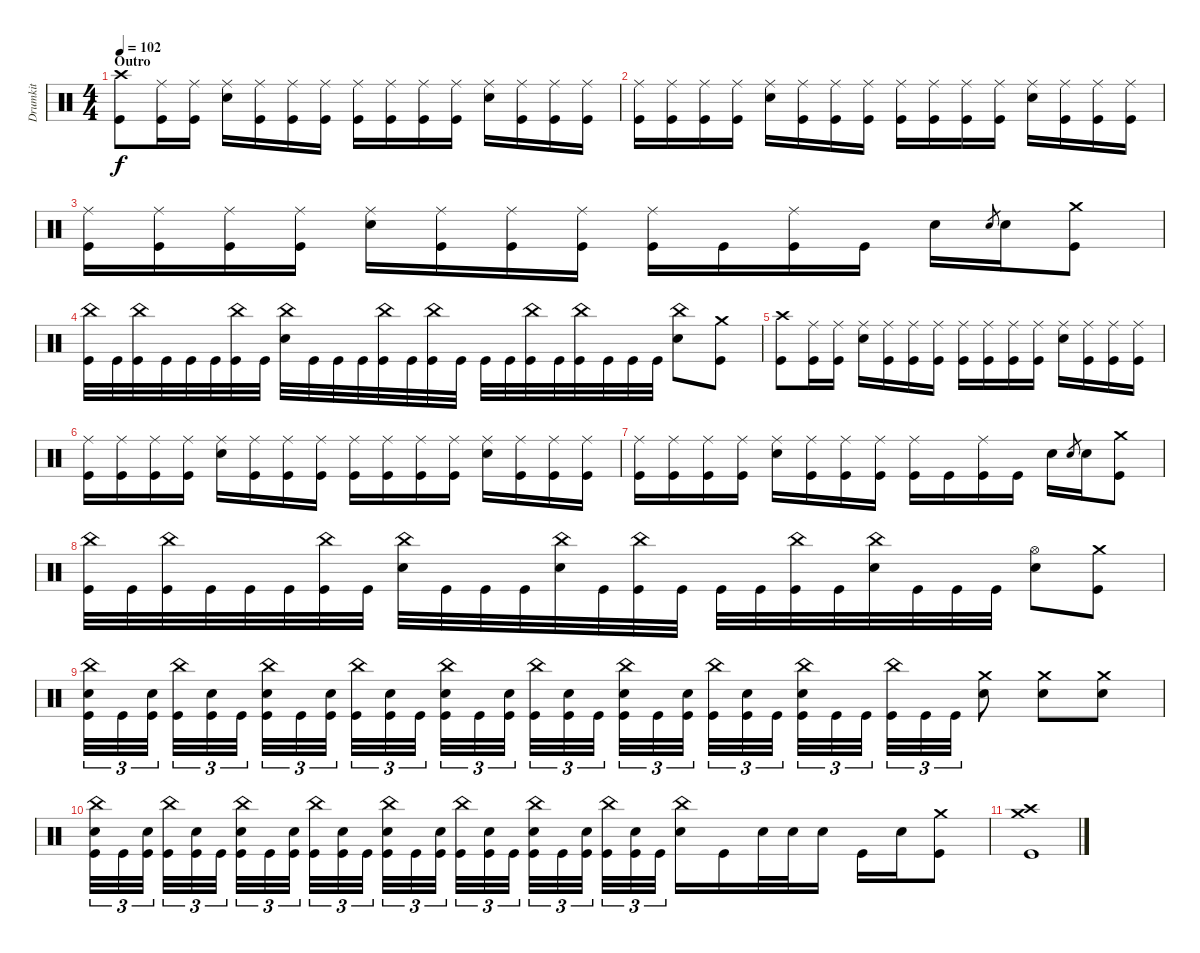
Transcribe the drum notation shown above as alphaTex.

\track ("Drumkit" "Drumkit") {instrument percussion}
\staff {score}
\articulation defaults
\ts (4 4)
\section ("" "Outro")
\tempo 102
\clef neutral
\ks c
("Kick (hit)" "Crash high (hit)").8{dy f} ("Kick (hit)" "Ride (middle)").16 ("Kick (hit)" "Ride (middle)").16 ("Snare (hit) 2" "Ride (middle)").16 ("Kick (hit)" "Ride (middle)").16 ("Kick (hit)" "Ride (middle)").16 ("Kick (hit)" "Ride (middle)").16 ("Kick (hit)" "Ride (middle)").16 ("Kick (hit)" "Ride (middle)").16 ("Kick (hit)" "Ride (middle)").16 ("Kick (hit)" "Ride (middle)").16 ("Snare (hit) 2" "Ride (middle)").16 ("Kick (hit)" "Ride (middle)").16 ("Kick (hit)" "Ride (middle)").16 ("Kick (hit)" "Ride (middle)").16 |
("Kick (hit)" "Ride (middle)").16 ("Kick (hit)" "Ride (middle)").16 ("Kick (hit)" "Ride (middle)").16 ("Kick (hit)" "Ride (middle)").16 ("Snare (hit) 2" "Ride (middle)").16 ("Kick (hit)" "Ride (middle)").16 ("Kick (hit)" "Ride (middle)").16 ("Kick (hit)" "Ride (middle)").16 ("Kick (hit)" "Ride (middle)").16 ("Kick (hit)" "Ride (middle)").16 ("Kick (hit)" "Ride (middle)").16 ("Kick (hit)" "Ride (middle)").16 ("Snare (hit) 2" "Ride (middle)").16 ("Kick (hit)" "Ride (middle)").16 ("Kick (hit)" "Ride (middle)").16 ("Kick (hit)" "Ride (middle)").16 |
("Kick (hit)" "Ride (middle)").16 ("Kick (hit)" "Ride (middle)").16 ("Kick (hit)" "Ride (middle)").16 ("Kick (hit)" "Ride (middle)").16 ("Snare (hit) 2" "Ride (middle)").16 ("Kick (hit)" "Ride (middle)").16 ("Kick (hit)" "Ride (middle)").16 ("Kick (hit)" "Ride (middle)").16 ("Kick (hit)" "Ride (middle)").16 "Kick (hit)".16 ("Kick (hit)" "Ride (middle)").16 "Kick (hit)".16 "Snare (hit) 2".16 "Snare (hit)".8{gr} "Snare (hit) 2".16 ("Kick (hit)" "Crash medium (hit)").8 |
("Kick (hit)" "China (hit)").32 "Kick (hit)".32 ("Kick (hit)" "China (hit)").32 "Kick (hit)".32 "Kick (hit)".32 "Kick (hit)".32 ("Kick (hit)" "China (hit)").32 "Kick (hit)".32 ("Snare (hit) 2" "China (hit)").32 "Kick (hit)".32 "Kick (hit)".32 "Kick (hit)".32 ("Kick (hit)" "China (hit)").32 "Kick (hit)".32 ("Kick (hit)" "China (hit)").32 "Kick (hit)".32 "Kick (hit)".32 "Kick (hit)".32 ("Kick (hit)" "China (hit)").32 "Kick (hit)".32 ("Kick (hit)" "China (hit)").32 "Kick (hit)".32 "Kick (hit)".32 "Kick (hit)".32 ("Snare (hit) 2" "China (hit)").8 ("Kick (hit)" "Crash medium (hit)").8 |
("Kick (hit)" "Crash high (hit)").8 ("Kick (hit)" "Ride (middle)").16 ("Kick (hit)" "Ride (middle)").16 ("Snare (hit) 2" "Ride (middle)").16 ("Kick (hit)" "Ride (middle)").16 ("Kick (hit)" "Ride (middle)").16 ("Kick (hit)" "Ride (middle)").16 ("Kick (hit)" "Ride (middle)").16 ("Kick (hit)" "Ride (middle)").16 ("Kick (hit)" "Ride (middle)").16 ("Kick (hit)" "Ride (middle)").16 ("Snare (hit) 2" "Ride (middle)").16 ("Kick (hit)" "Ride (middle)").16 ("Kick (hit)" "Ride (middle)").16 ("Kick (hit)" "Ride (middle)").16 |
("Kick (hit)" "Ride (middle)").16 ("Kick (hit)" "Ride (middle)").16 ("Kick (hit)" "Ride (middle)").16 ("Kick (hit)" "Ride (middle)").16 ("Snare (hit) 2" "Ride (middle)").16 ("Kick (hit)" "Ride (middle)").16 ("Kick (hit)" "Ride (middle)").16 ("Kick (hit)" "Ride (middle)").16 ("Kick (hit)" "Ride (middle)").16 ("Kick (hit)" "Ride (middle)").16 ("Kick (hit)" "Ride (middle)").16 ("Kick (hit)" "Ride (middle)").16 ("Snare (hit) 2" "Ride (middle)").16 ("Kick (hit)" "Ride (middle)").16 ("Kick (hit)" "Ride (middle)").16 ("Kick (hit)" "Ride (middle)").16 |
("Kick (hit)" "Ride (middle)").16 ("Kick (hit)" "Ride (middle)").16 ("Kick (hit)" "Ride (middle)").16 ("Kick (hit)" "Ride (middle)").16 ("Snare (hit) 2" "Ride (middle)").16 ("Kick (hit)" "Ride (middle)").16 ("Kick (hit)" "Ride (middle)").16 ("Kick (hit)" "Ride (middle)").16 ("Kick (hit)" "Ride (middle)").16 "Kick (hit)".16 ("Kick (hit)" "Ride (middle)").16 "Kick (hit)".16 "Snare (hit) 2".16 "Snare (hit)".8{gr} "Snare (hit) 2".16 ("Kick (hit)" "Crash medium (hit)").8 |
("Kick (hit)" "China (hit)").32 "Kick (hit)".32 ("Kick (hit)" "China (hit)").32 "Kick (hit)".32 "Kick (hit)".32 "Kick (hit)".32 ("Kick (hit)" "China (hit)").32 "Kick (hit)".32 ("Snare (hit) 2" "China (hit)").32 "Kick (hit)".32 "Kick (hit)".32 "Kick (hit)".32 ("China (hit)" "Snare (hit) 2").32 "Kick (hit)".32 ("Kick (hit)" "China (hit)").32 "Kick (hit)".32 "Kick (hit)".32 "Kick (hit)".32 ("Kick (hit)" "China (hit)").32 "Kick (hit)".32 ("China (hit)" "Snare (hit) 2").32 "Kick (hit)".32 "Kick (hit)".32 "Kick (hit)".32 ("Snare (hit) 2" "Hi-Hat (open)").8 ("Kick (hit)" "Crash medium (hit)").8 |
("Snare (hit) 2" "Kick (hit)" "China (hit)").32{tu (3 2)} "Kick (hit)".32{tu (3 2)} ("Kick (hit)" "Snare (hit) 2").32{tu (3 2)} ("Kick (hit)" "China (hit)").32{tu (3 2)} ("Kick (hit)" "Snare (hit) 2").32{tu (3 2)} "Kick (hit)".32{tu (3 2)} ("Kick (hit)" "Snare (hit) 2" "China (hit)").32{tu (3 2)} "Kick (hit)".32{tu (3 2)} ("Kick (hit)" "Snare (hit) 2").32{tu (3 2)} ("Kick (hit)" "China (hit)").32{tu (3 2)} ("Kick (hit)" "Snare (hit) 2").32{tu (3 2)} "Kick (hit)".32{tu (3 2)} ("Snare (hit) 2" "Kick (hit)" "China (hit)").32{tu (3 2)} "Kick (hit)".32{tu (3 2)} ("Kick (hit)" "Snare (hit) 2").32{tu (3 2)} ("Kick (hit)" "China (hit)").32{tu (3 2)} ("Kick (hit)" "Snare (hit) 2").32{tu (3 2)} "Kick (hit)".32{tu (3 2)} ("Kick (hit)" "Snare (hit) 2" "China (hit)").32{tu (3 2)} "Kick (hit)".32{tu (3 2)} ("Kick (hit)" "Snare (hit) 2").32{tu (3 2)} ("Kick (hit)" "China (hit)").32{tu (3 2)} ("Kick (hit)" "Snare (hit) 2").32{tu (3 2)} "Kick (hit)".32{tu (3 2)} ("Snare (hit) 2" "Kick (hit)" "China (hit)").32{tu (3 2)} "Kick (hit)".32{tu (3 2)} "Kick (hit)".32{tu (3 2)} ("Kick (hit)" "China (hit)").32{tu (3 2)} "Kick (hit)".32{tu (3 2)} "Kick (hit)".32{tu (3 2)} ("Snare (hit) 2" "Crash medium (hit)").8 ("Snare (hit) 2" "Crash medium (hit)").8 ("Snare (hit) 2" "Crash medium (hit)").8 |
("Snare (hit) 2" "Kick (hit)" "China (hit)").32{tu (3 2)} "Kick (hit)".32{tu (3 2)} ("Kick (hit)" "Snare (hit) 2").32{tu (3 2)} ("Kick (hit)" "China (hit)").32{tu (3 2)} ("Kick (hit)" "Snare (hit) 2").32{tu (3 2)} "Kick (hit)".32{tu (3 2)} ("Kick (hit)" "Snare (hit) 2" "China (hit)").32{tu (3 2)} "Kick (hit)".32{tu (3 2)} ("Kick (hit)" "Snare (hit) 2").32{tu (3 2)} ("Kick (hit)" "China (hit)").32{tu (3 2)} ("Kick (hit)" "Snare (hit) 2").32{tu (3 2)} "Kick (hit)".32{tu (3 2)} ("Snare (hit) 2" "Kick (hit)" "China (hit)").32{tu (3 2)} "Kick (hit)".32{tu (3 2)} ("Kick (hit)" "Snare (hit) 2").32{tu (3 2)} ("Kick (hit)" "China (hit)").32{tu (3 2)} ("Kick (hit)" "Snare (hit) 2").32{tu (3 2)} "Kick (hit)".32{tu (3 2)} ("Kick (hit)" "Snare (hit) 2" "China (hit)").32{tu (3 2)} "Kick (hit)".32{tu (3 2)} ("Kick (hit)" "Snare (hit) 2").32{tu (3 2)} ("Kick (hit)" "China (hit)").32{tu (3 2)} ("Kick (hit)" "Snare (hit) 2").32{tu (3 2)} "Kick (hit)".32{tu (3 2)} ("Snare (hit) 2" "China (hit)").16 "Kick (hit)".16 "Snare (hit) 2".32 "Snare (hit) 2".32 "Snare (hit) 2".16 "Kick (hit)".16 "Snare (hit) 2".16 ("Kick (hit)" "Crash medium (hit)").8 |
("Crash high (hit)" "Kick (hit)" "Crash medium (hit)").1
